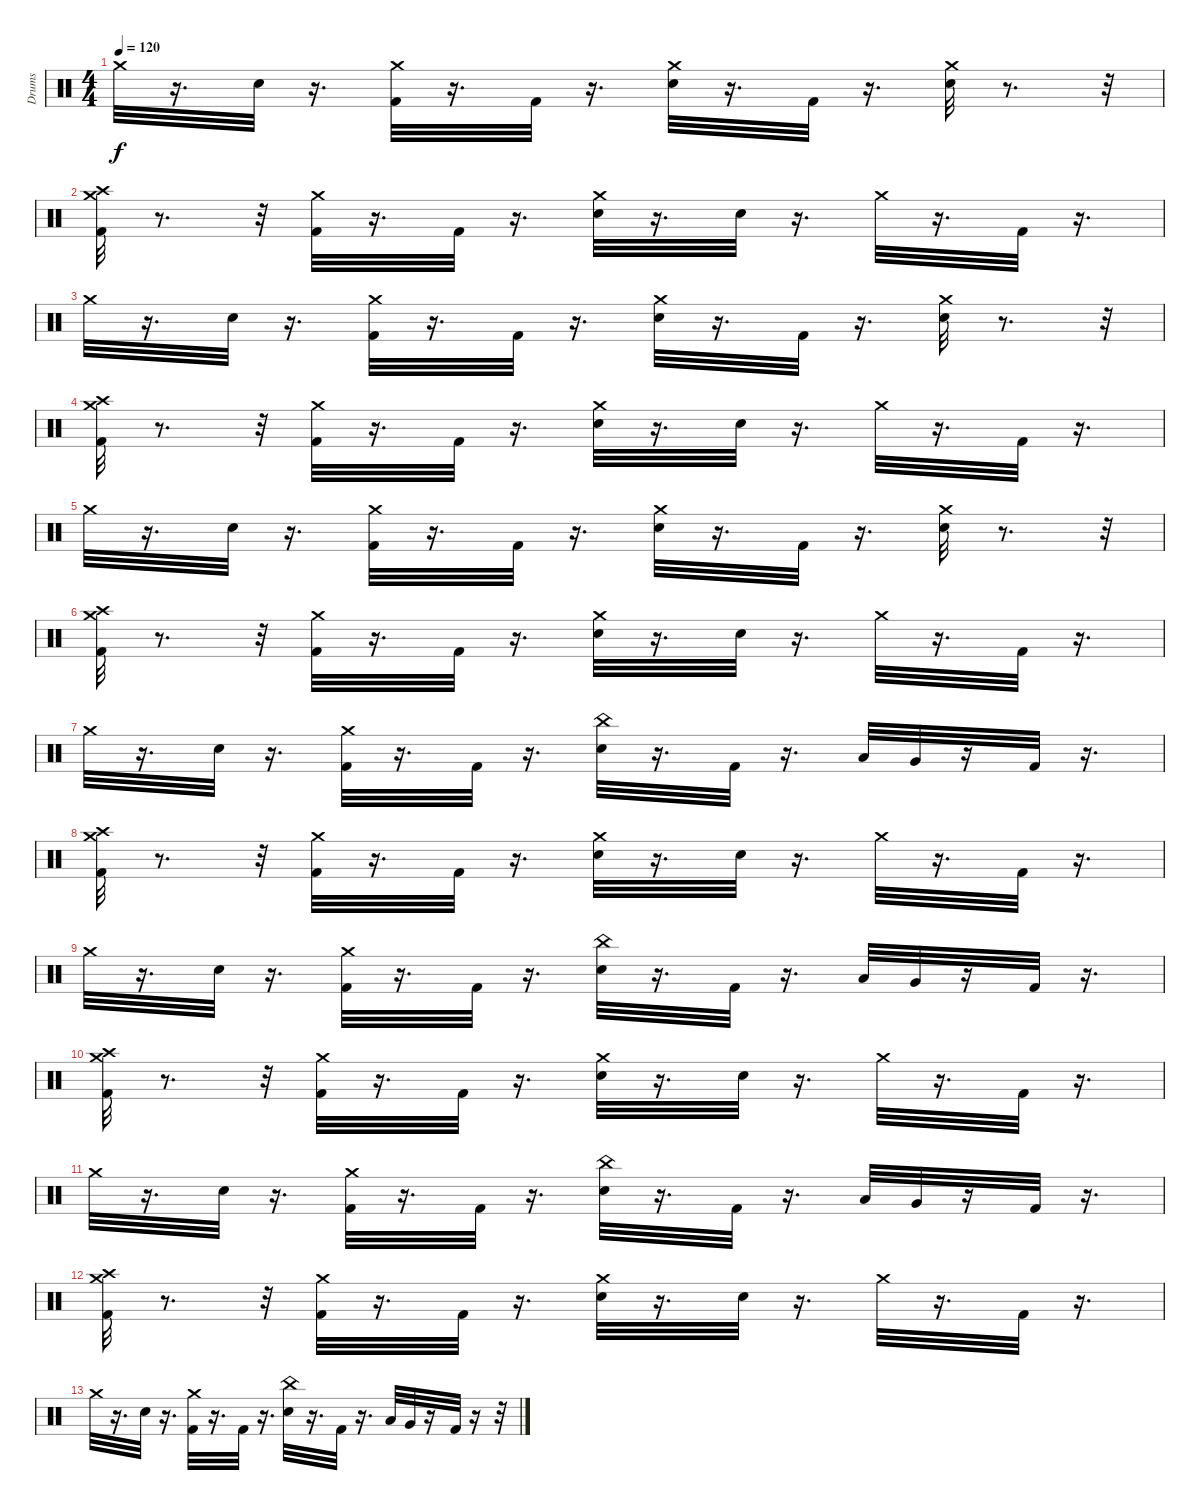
\track ("Drums" "Drums") {instrument percussion}
\staff {score}
\articulation defaults
\ts (4 4)
\tempo 120
\clef neutral
\ks c "Crash medium (hit)".32{dy f}
r.16{d} "Snare (hit) 2".32 r.16{d} ("Kick (hit) 2" "Crash medium (hit)").32 r.16{d} "Kick (hit) 2".32 r.16{d} ("Snare (hit) 2" "Crash medium (hit)").32 r.16{d} "Kick (hit) 2".32 r.16{d} ("Crash medium (hit)" "Snare (hit) 2").32 r.8{d} r.32 |
("Crash medium (hit)" "Crash high (hit)" "Kick (hit) 2").32 r.8{d} r.32 ("Crash medium (hit)" "Kick (hit) 2").32 r.16{d} "Kick (hit) 2".32 r.16{d} ("Crash medium (hit)" "Snare (hit) 2").32 r.16{d} "Snare (hit) 2".32 r.16{d} "Crash medium (hit)".32 r.16{d} "Kick (hit) 2".32 r.16{d} |
"Crash medium (hit)".32 r.16{d} "Snare (hit) 2".32 r.16{d} ("Kick (hit) 2" "Crash medium (hit)").32 r.16{d} "Kick (hit) 2".32 r.16{d} ("Snare (hit) 2" "Crash medium (hit)").32 r.16{d} "Kick (hit) 2".32 r.16{d} ("Crash medium (hit)" "Snare (hit) 2").32 r.8{d} r.32 |
("Crash medium (hit)" "Crash high (hit)" "Kick (hit) 2").32 r.8{d} r.32 ("Crash medium (hit)" "Kick (hit) 2").32 r.16{d} "Kick (hit) 2".32 r.16{d} ("Crash medium (hit)" "Snare (hit) 2").32 r.16{d} "Snare (hit) 2".32 r.16{d} "Crash medium (hit)".32 r.16{d} "Kick (hit) 2".32 r.16{d} |
"Crash medium (hit)".32 r.16{d} "Snare (hit) 2".32 r.16{d} ("Kick (hit) 2" "Crash medium (hit)").32 r.16{d} "Kick (hit) 2".32 r.16{d} ("Snare (hit) 2" "Crash medium (hit)").32 r.16{d} "Kick (hit) 2".32 r.16{d} ("Crash medium (hit)" "Snare (hit) 2").32 r.8{d} r.32 |
("Crash medium (hit)" "Crash high (hit)" "Kick (hit) 2").32 r.8{d} r.32 ("Crash medium (hit)" "Kick (hit) 2").32 r.16{d} "Kick (hit) 2".32 r.16{d} ("Crash medium (hit)" "Snare (hit) 2").32 r.16{d} "Snare (hit) 2".32 r.16{d} "Crash medium (hit)".32 r.16{d} "Kick (hit) 2".32 r.16{d} |
"Crash medium (hit)".32 r.16{d} "Snare (hit) 2".32 r.16{d} ("Kick (hit) 2" "Crash medium (hit)").32 r.16{d} "Kick (hit) 2".32 r.16{d} ("Snare (hit) 2" "China (hit)").32 r.16{d} "Kick (hit) 2".32 r.16{d} "Low Floor Tom (hit)".32 "Very Low Tom (hit)".32 r.16 "Kick (hit) 2".32 r.16{d} |
("Crash medium (hit)" "Crash high (hit)" "Kick (hit) 2").32 r.8{d} r.32 ("Crash medium (hit)" "Kick (hit) 2").32 r.16{d} "Kick (hit) 2".32 r.16{d} ("Crash medium (hit)" "Snare (hit) 2").32 r.16{d} "Snare (hit) 2".32 r.16{d} "Crash medium (hit)".32 r.16{d} "Kick (hit) 2".32 r.16{d} |
"Crash medium (hit)".32 r.16{d} "Snare (hit) 2".32 r.16{d} ("Kick (hit) 2" "Crash medium (hit)").32 r.16{d} "Kick (hit) 2".32 r.16{d} ("Snare (hit) 2" "China (hit)").32 r.16{d} "Kick (hit) 2".32 r.16{d} "Low Floor Tom (hit)".32 "Very Low Tom (hit)".32 r.16 "Kick (hit) 2".32 r.16{d} |
("Crash medium (hit)" "Crash high (hit)" "Kick (hit) 2").32 r.8{d} r.32 ("Crash medium (hit)" "Kick (hit) 2").32 r.16{d} "Kick (hit) 2".32 r.16{d} ("Crash medium (hit)" "Snare (hit) 2").32 r.16{d} "Snare (hit) 2".32 r.16{d} "Crash medium (hit)".32 r.16{d} "Kick (hit) 2".32 r.16{d} |
"Crash medium (hit)".32 r.16{d} "Snare (hit) 2".32 r.16{d} ("Kick (hit) 2" "Crash medium (hit)").32 r.16{d} "Kick (hit) 2".32 r.16{d} ("China (hit)" "Snare (hit) 2").32 r.16{d} "Kick (hit) 2".32 r.16{d} "Low Floor Tom (hit)".32 "Very Low Tom (hit)".32 r.16 "Kick (hit) 2".32 r.16{d} |
("Crash medium (hit)" "Crash high (hit)" "Kick (hit) 2").32 r.8{d} r.32 ("Crash medium (hit)" "Kick (hit) 2").32 r.16{d} "Kick (hit) 2".32 r.16{d} ("Crash medium (hit)" "Snare (hit) 2").32 r.16{d} "Snare (hit) 2".32 r.16{d} "Crash medium (hit)".32 r.16{d} "Kick (hit) 2".32 r.16{d} |
"Crash medium (hit)".32 r.16{d} "Snare (hit) 2".32 r.16{d} ("Kick (hit) 2" "Crash medium (hit)").32 r.16{d} "Kick (hit) 2".32 r.16{d} ("China (hit)" "Snare (hit) 2").32 r.16{d} "Kick (hit) 2".32 r.16{d} "Low Floor Tom (hit)".32 "Very Low Tom (hit)".32 r.16 "Kick (hit) 2".32 r.16 r.32
